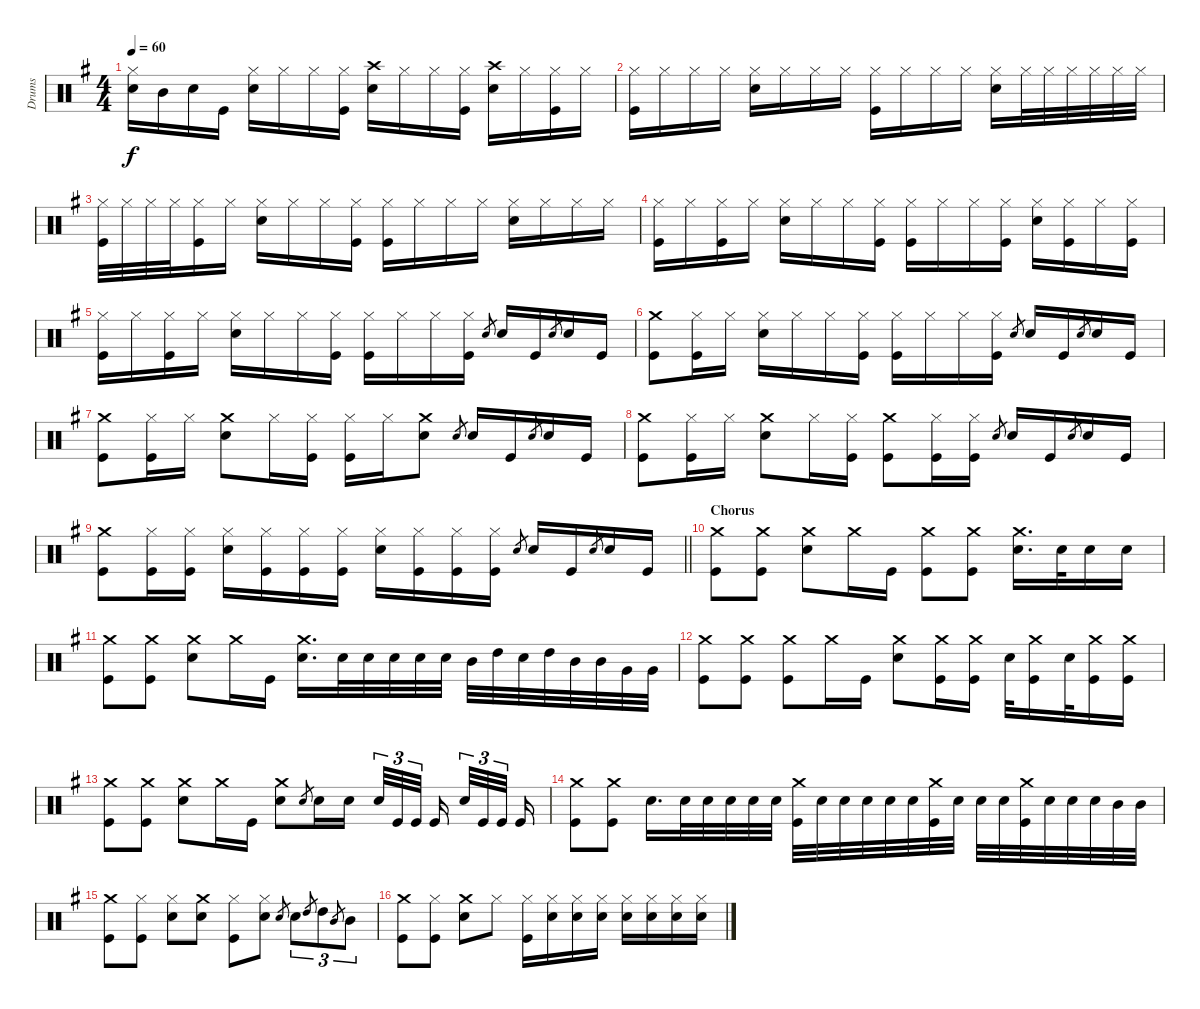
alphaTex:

\track ("Drums" "Drums") {instrument percussion}
\staff {score}
\articulation defaults
\ts (4 4)
\tempo 60
\clef neutral
\ks g
("Electric Snare (hit)" "Hi-Hat (closed)").16{dy f} "Mid Tom (hit)".16 "Electric Snare (hit)".16 "Kick (hit)".16 ("Electric Snare (hit)" "Hi-Hat (closed)").16 "Hi-Hat (closed)".16 "Hi-Hat (closed)".16 ("Kick (hit)" "Hi-Hat (closed)").16 ("Electric Snare (hit)" "Crash high (hit)").16 "Hi-Hat (closed)".16 "Hi-Hat (closed)".16 ("Kick (hit)" "Hi-Hat (closed)").16 ("Electric Snare (hit)" "Crash high (hit)").16 "Hi-Hat (closed)".16 ("Kick (hit)" "Hi-Hat (closed)").16 "Hi-Hat (closed)".16 |
("Kick (hit)" "Hi-Hat (closed)").16 "Hi-Hat (closed)".16 "Hi-Hat (closed)".16 "Hi-Hat (closed)".16 ("Electric Snare (hit)" "Hi-Hat (closed)").16 "Hi-Hat (closed)".16 "Hi-Hat (closed)".16 "Hi-Hat (closed)".16 ("Kick (hit)" "Hi-Hat (closed)").16 "Hi-Hat (closed)".16 "Hi-Hat (closed)".16 "Hi-Hat (closed)".16 ("Electric Snare (hit)" "Hi-Hat (closed)").16 "Hi-Hat (closed)".32 "Hi-Hat (closed)".32 "Hi-Hat (closed)".32 "Hi-Hat (closed)".32 "Hi-Hat (closed)".32 "Hi-Hat (closed)".32 |
("Kick (hit)" "Hi-Hat (closed)").32 "Hi-Hat (closed)".32 "Hi-Hat (closed)".32 "Hi-Hat (closed)".32 ("Kick (hit)" "Hi-Hat (closed)").16 "Hi-Hat (closed)".16 ("Electric Snare (hit)" "Hi-Hat (closed)").16 "Hi-Hat (closed)".16 "Hi-Hat (closed)".16 ("Kick (hit)" "Hi-Hat (closed)").16 ("Kick (hit)" "Hi-Hat (closed)").16 "Hi-Hat (closed)".16 "Hi-Hat (closed)".16 "Hi-Hat (closed)".16 ("Electric Snare (hit)" "Hi-Hat (closed)").16 "Hi-Hat (closed)".16 "Hi-Hat (closed)".16 "Hi-Hat (closed)".16 |
("Kick (hit)" "Hi-Hat (closed)").16 "Hi-Hat (closed)".16 ("Kick (hit)" "Hi-Hat (closed)").16 "Hi-Hat (closed)".16 ("Electric Snare (hit)" "Hi-Hat (closed)").16 "Hi-Hat (closed)".16 "Hi-Hat (closed)".16 ("Kick (hit)" "Hi-Hat (closed)").16 ("Kick (hit)" "Hi-Hat (closed)").16 "Hi-Hat (closed)".16 "Hi-Hat (closed)".16 ("Kick (hit)" "Hi-Hat (closed)").16 ("Electric Snare (hit)" "Hi-Hat (closed)").16 ("Kick (hit)" "Hi-Hat (closed)").16 "Hi-Hat (closed)".16 ("Kick (hit)" "Hi-Hat (closed)").16 |
("Kick (hit)" "Hi-Hat (closed)").16 "Hi-Hat (closed)".16 ("Kick (hit)" "Hi-Hat (closed)").16 "Hi-Hat (closed)".16 ("Electric Snare (hit)" "Hi-Hat (closed)").16 "Hi-Hat (closed)".16 "Hi-Hat (closed)".16 ("Kick (hit)" "Hi-Hat (closed)").16 ("Kick (hit)" "Hi-Hat (closed)").16 "Hi-Hat (closed)".16 "Hi-Hat (closed)".16 ("Kick (hit)" "Hi-Hat (closed)").16 "Electric Snare (hit)".8{gr} "Electric Snare (hit)".16 "Kick (hit)".16 "Electric Snare (hit)".8{gr} "Electric Snare (hit)".16 "Kick (hit)".16 |
("Kick (hit)" "Crash medium (hit)").8 ("Kick (hit)" "Hi-Hat (closed)").16 "Hi-Hat (closed)".16 ("Electric Snare (hit)" "Hi-Hat (closed)").16 "Hi-Hat (closed)".16 "Hi-Hat (closed)".16 ("Kick (hit)" "Hi-Hat (closed)").16 ("Kick (hit)" "Hi-Hat (closed)").16 "Hi-Hat (closed)".16 "Hi-Hat (closed)".16 ("Kick (hit)" "Hi-Hat (closed)").16 "Electric Snare (hit)".8{gr} "Electric Snare (hit)".16 "Kick (hit)".16 "Electric Snare (hit)".8{gr} "Electric Snare (hit)".16 "Kick (hit)".16 |
("Kick (hit)" "Crash medium (hit)").8 ("Kick (hit)" "Hi-Hat (closed)").16 "Hi-Hat (closed)".16 ("Electric Snare (hit)" "Crash medium (hit)").8 "Hi-Hat (closed)".16 ("Kick (hit)" "Hi-Hat (closed)").16 ("Kick (hit)" "Hi-Hat (closed)").16 "Hi-Hat (closed)".16 ("Electric Snare (hit)" "Crash medium (hit)").8 "Electric Snare (hit)".8{gr} "Electric Snare (hit)".16 "Kick (hit)".16 "Electric Snare (hit)".8{gr} "Electric Snare (hit)".16 "Kick (hit)".16 |
("Kick (hit)" "Crash medium (hit)").8 ("Kick (hit)" "Hi-Hat (closed)").16 "Hi-Hat (closed)".16 ("Electric Snare (hit)" "Crash medium (hit)").8 "Hi-Hat (closed)".16 ("Kick (hit)" "Hi-Hat (closed)").16 ("Kick (hit)" "Crash medium (hit)").8 ("Kick (hit)" "Hi-Hat (closed)").16 ("Kick (hit)" "Hi-Hat (closed)").16 "Electric Snare (hit)".8{gr} "Electric Snare (hit)".16 "Kick (hit)".16 "Electric Snare (hit)".8{gr} "Electric Snare (hit)".16 "Kick (hit)".16 |
\barLineRight lightlight
("Kick (hit)" "Crash medium (hit)").8 ("Kick (hit)" "Hi-Hat (closed)").16 ("Kick (hit)" "Hi-Hat (closed)").16 ("Electric Snare (hit)" "Hi-Hat (closed)").16 ("Kick (hit)" "Hi-Hat (closed)").16 ("Kick (hit)" "Hi-Hat (closed)").16 ("Kick (hit)" "Hi-Hat (closed)").16 ("Electric Snare (hit)" "Hi-Hat (closed)").16 ("Kick (hit)" "Hi-Hat (closed)").16 ("Kick (hit)" "Hi-Hat (closed)").16 ("Kick (hit)" "Hi-Hat (closed)").16 "Electric Snare (hit)".8{gr} "Electric Snare (hit)".16 "Kick (hit)".16 "Electric Snare (hit)".8{gr} "Electric Snare (hit)".16 "Kick (hit)".16 |
\section ("" "Chorus")
("Kick (hit)" "Crash medium (hit)").8 ("Kick (hit)" "Crash medium (hit)").8 ("Electric Snare (hit)" "Crash medium (hit)").8 "Crash medium (hit)".16 "Kick (hit)".16 ("Kick (hit)" "Crash medium (hit)").8 ("Kick (hit)" "Crash medium (hit)").8 ("Electric Snare (hit)" "Crash medium (hit)").16{d} "Electric Snare (hit)".32 "Electric Snare (hit)".16 "Electric Snare (hit)".16 |
("Kick (hit)" "Crash medium (hit)").8 ("Kick (hit)" "Crash medium (hit)").8 ("Electric Snare (hit)" "Crash medium (hit)").8 "Crash medium (hit)".16 "Kick (hit)".16 ("Electric Snare (hit)" "Crash medium (hit)").16{d} "Electric Snare (hit)".32 "Electric Snare (hit)".32 "Electric Snare (hit)".32 "Electric Snare (hit)".32 "Electric Snare (hit)".32 "Mid Tom (hit)".32 "High Tom (hit)".32 "Electric Snare (hit)".32 "High Tom (hit)".32 "Mid Tom (hit)".32 "Mid Tom (hit)".32 "Very Low Tom (hit)".32 "Very Low Tom (hit)".32 |
("Kick (hit)" "Crash medium (hit)").8 ("Kick (hit)" "Crash medium (hit)").8 ("Kick (hit)" "Crash medium (hit)").8 "Crash medium (hit)".16 "Kick (hit)".16 ("Electric Snare (hit)" "Crash medium (hit)").8 ("Kick (hit)" "Crash medium (hit)").16 ("Kick (hit)" "Crash medium (hit)").16 "Electric Snare (hit)".32 ("Kick (hit)" "Crash medium (hit)").16 "Electric Snare (hit)".32 ("Kick (hit)" "Crash medium (hit)").16 ("Kick (hit)" "Crash medium (hit)").16 |
("Kick (hit)" "Crash medium (hit)").8 ("Kick (hit)" "Crash medium (hit)").8 ("Electric Snare (hit)" "Crash medium (hit)").8 "Crash medium (hit)".16 "Kick (hit)".16 ("Electric Snare (hit)" "Crash medium (hit)").8 "Electric Snare (hit)".8{gr} "Electric Snare (hit)".16 "Electric Snare (hit)".16 "Electric Snare (hit)".32{tu (3 2)} "Kick (hit)".32{tu (3 2)} "Kick (hit)".32{tu (3 2) beam splitsecondary} "Kick (hit)".16{beam splitsecondary} "Electric Snare (hit)".32{tu (3 2)} "Kick (hit)".32{tu (3 2)} "Kick (hit)".32{tu (3 2) beam splitsecondary} "Kick (hit)".16 |
("Kick (hit)" "Crash medium (hit)").8 ("Kick (hit)" "Crash medium (hit)").8 "Electric Snare (hit)".16{d} "Electric Snare (hit)".32 "Electric Snare (hit)".32 "Electric Snare (hit)".32 "Electric Snare (hit)".32 "Electric Snare (hit)".32 ("Kick (hit)" "Crash medium (hit)").32 "Electric Snare (hit)".32 "Electric Snare (hit)".32 "Electric Snare (hit)".32 "Electric Snare (hit)".32 "Electric Snare (hit)".32 ("Kick (hit)" "Crash medium (hit)").32 "Electric Snare (hit)".32 "Electric Snare (hit)".32 "Electric Snare (hit)".32 ("Kick (hit)" "Crash medium (hit)").32 "Electric Snare (hit)".32 "Electric Snare (hit)".32 "Electric Snare (hit)".32 "Mid Tom (hit)".32 "Mid Tom (hit)".32 |
("Kick (hit)" "Crash medium (hit)").8 ("Kick (hit)" "Hi-Hat (closed)").8 ("Electric Snare (hit)" "Hi-Hat (closed)").8 ("Electric Snare (hit)" "Crash medium (hit)").8 ("Kick (hit)" "Hi-Hat (closed)").8 ("Electric Snare (hit)" "Hi-Hat (closed)").8 "Electric Snare (hit)".8{gr} "Electric Snare (hit)".8{tu (3 2)} "High Tom (hit)".8{gr} "High Tom (hit)".8{tu (3 2)} "Mid Tom (hit)".8{gr} "Mid Tom (hit)".8{tu (3 2)} |
("Kick (hit)" "Crash medium (hit)").8 ("Kick (hit)" "Hi-Hat (closed)").8 ("Electric Snare (hit)" "Crash medium (hit)").8 "Hi-Hat (closed)".8 ("Kick (hit)" "Hi-Hat (closed)").16 ("Electric Snare (hit)" "Hi-Hat (closed)").16 ("Electric Snare (hit)" "Hi-Hat (closed)").16 ("Electric Snare (hit)" "Hi-Hat (closed)").16 ("Electric Snare (hit)" "Hi-Hat (closed)").16 ("Electric Snare (hit)" "Hi-Hat (closed)").16 ("Electric Snare (hit)" "Hi-Hat (closed)").16 ("Electric Snare (hit)" "Hi-Hat (closed)").16
